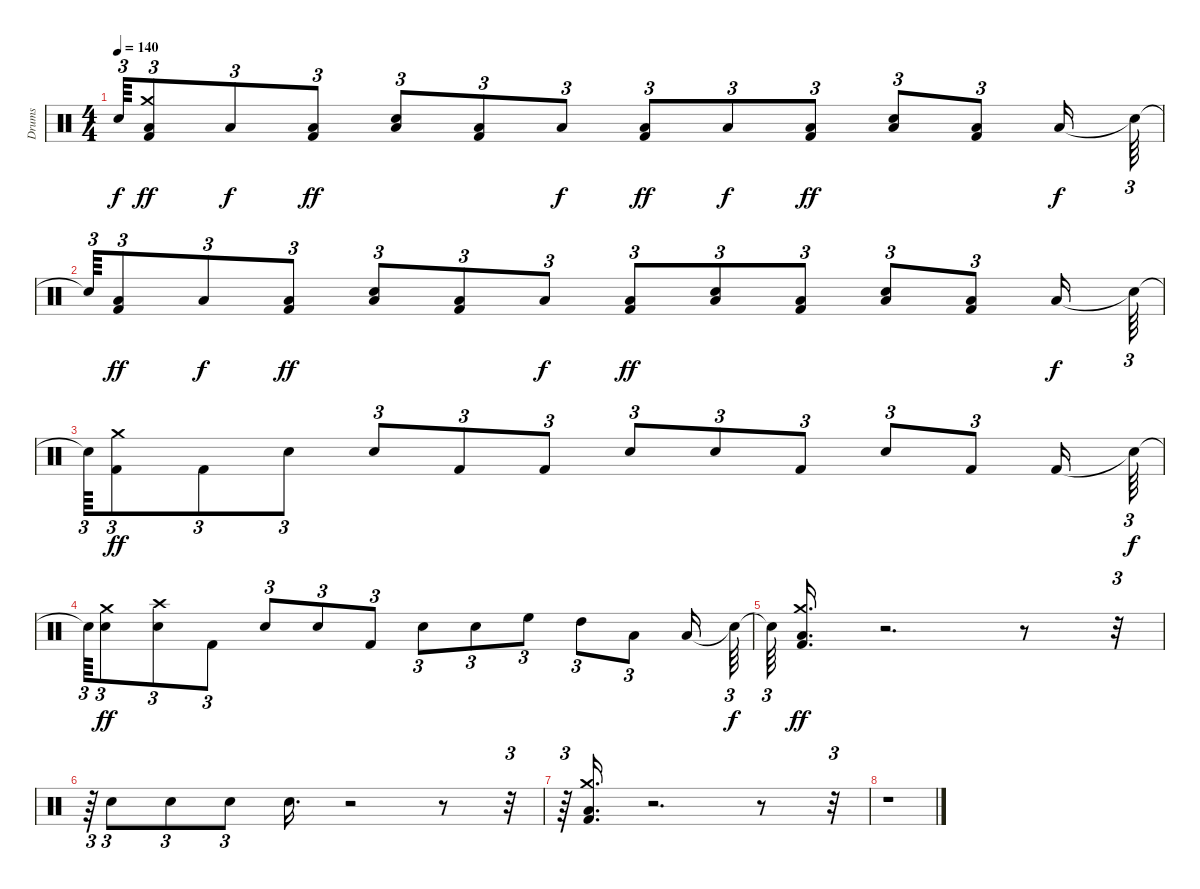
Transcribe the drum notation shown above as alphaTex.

\track ("Drums" "Drums") {instrument percussion}
\staff {score}
\articulation defaults
\ts (4 4)
\tempo 140
\clef neutral
\ks c "Snare (hit)"{t}.64{tu (3 2) dy f}
("Kick (hit) 2" "Crash medium (hit)" "Low Floor Tom (hit)").8{tu (3 2) dy ff} "Low Floor Tom (hit)".8{tu (3 2) dy f} ("Kick (hit) 2" "Low Floor Tom (hit)").8{tu (3 2) dy ff} ("Snare (hit) 2" "Low Floor Tom (hit)").8{tu (3 2)} ("Kick (hit) 2" "Low Floor Tom (hit)").8{tu (3 2)} "Low Floor Tom (hit)".8{tu (3 2) dy f} ("Kick (hit) 2" "Low Floor Tom (hit)").8{tu (3 2) dy ff} "Low Floor Tom (hit)".8{tu (3 2) dy f} ("Kick (hit) 2" "Low Floor Tom (hit)").8{tu (3 2) dy ff} ("Snare (hit) 2" "Low Floor Tom (hit)").8{tu (3 2)} ("Kick (hit) 2" "Low Floor Tom (hit)").8{tu (3 2)} "Low Floor Tom (hit)".16{dy f} "Snare (hit)"{t}.64{tu (3 2)} |
"Snare (hit)"{t}.64{tu (3 2)} ("Kick (hit) 2" "Low Floor Tom (hit)").8{tu (3 2) dy ff} "Low Floor Tom (hit)".8{tu (3 2) dy f} ("Kick (hit) 2" "Low Floor Tom (hit)").8{tu (3 2) dy ff} ("Snare (hit) 2" "Low Floor Tom (hit)").8{tu (3 2)} ("Kick (hit) 2" "Low Floor Tom (hit)").8{tu (3 2)} "Low Floor Tom (hit)".8{tu (3 2) dy f} ("Kick (hit) 2" "Low Floor Tom (hit)").8{tu (3 2) dy ff} ("Snare (hit) 2" "Low Floor Tom (hit)").8{tu (3 2)} ("Kick (hit) 2" "Low Floor Tom (hit)").8{tu (3 2)} ("Snare (hit) 2" "Low Floor Tom (hit)").8{tu (3 2)} ("Kick (hit) 2" "Low Floor Tom (hit)").8{tu (3 2)} "Low Floor Tom (hit)".16{dy f} "Snare (hit)"{t}.64{tu (3 2)} |
"Snare (hit)"{t}.64{tu (3 2)} ("Kick (hit) 2" "Crash medium (hit)").8{tu (3 2) dy ff} "Kick (hit) 2".8{tu (3 2)} "Snare (hit) 2".8{tu (3 2)} "Snare (hit) 2".8{tu (3 2)} "Kick (hit) 2".8{tu (3 2)} "Kick (hit) 2".8{tu (3 2)} "Snare (hit) 2".8{tu (3 2)} "Snare (hit) 2".8{tu (3 2)} "Kick (hit) 2".8{tu (3 2)} "Snare (hit) 2".8{tu (3 2)} "Kick (hit) 2".8{tu (3 2)} "Kick (hit) 2".16 "Snare (hit)"{t}.64{tu (3 2) dy f} |
"Snare (hit)"{t}.64{tu (3 2)} ("Snare (hit) 2" "Crash medium (hit)").8{tu (3 2) dy ff} ("Snare (hit) 2" "Crash high (hit)").8{tu (3 2)} "Kick (hit) 2".8{tu (3 2)} "Snare (hit) 2".8{tu (3 2)} "Snare (hit) 2".8{tu (3 2)} "Kick (hit) 2".8{tu (3 2)} "Snare (hit) 2".8{tu (3 2)} "Snare (hit) 2".8{tu (3 2)} "High Floor Tom (hit)".8{tu (3 2)} "High Tom (hit)".8{tu (3 2)} "Low Tom (hit)".8{tu (3 2)} "Low Floor Tom (hit)".16 "Snare (hit)"{t}.64{tu (3 2) dy f} |
"Snare (hit)"{t}.64{tu (3 2)} ("Kick (hit) 2" "Low Floor Tom (hit)" "Crash medium (hit)").16{d dy ff} r.2{d} r.8 r.32{tu (3 2)} |
r.64{tu (3 2)} "Snare (hit) 2".8{tu (3 2)} "Snare (hit) 2".8{tu (3 2)} "Snare (hit) 2".8{tu (3 2)} "Snare (hit) 2".16{d} r.2 r.8 r.32{tu (3 2)} |
r.64{tu (3 2)} ("Kick (hit) 2" "Low Floor Tom (hit)" "Crash medium (hit)").16{d} r.2{d} r.8 r.32{tu (3 2)} |
r.1
